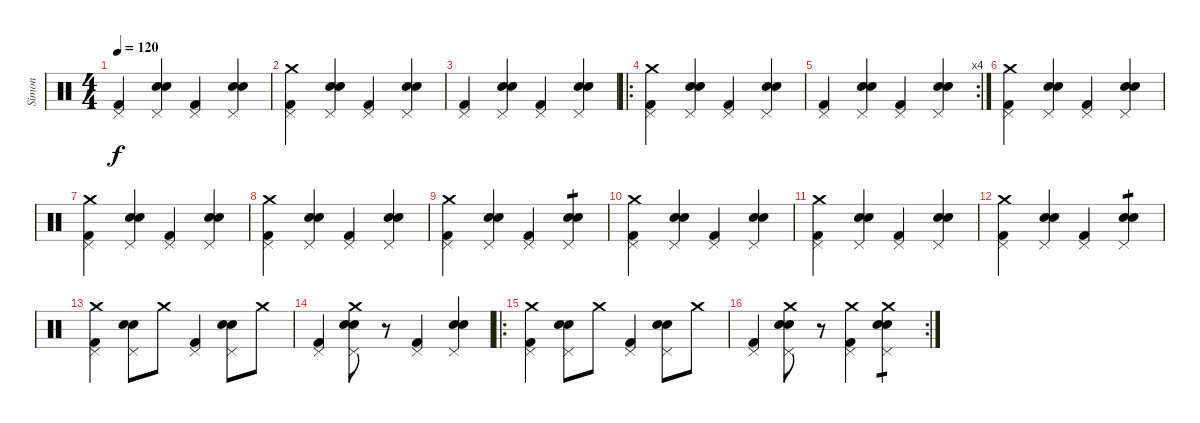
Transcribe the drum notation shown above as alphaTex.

\track ("Simon" "Simon") {instrument percussion}
\staff {score}
\articulation defaults
\ts (4 4)
\tempo 120
\clef neutral
\ks c
("Kick (hit) 2" "Pedal Hi-Hat (hit)").4{dy f} ("Snare (hit) 2" "Electric Snare (hit)" "Pedal Hi-Hat (hit)").4 ("Kick (hit) 2" "Pedal Hi-Hat (hit)").4 ("Snare (hit) 2" "Electric Snare (hit)" "Pedal Hi-Hat (hit)").4 |
("Kick (hit) 2" "Crash medium (hit)" "Pedal Hi-Hat (hit)").4 ("Snare (hit) 2" "Electric Snare (hit)" "Pedal Hi-Hat (hit)").4 ("Kick (hit) 2" "Pedal Hi-Hat (hit)").4 ("Snare (hit) 2" "Electric Snare (hit)" "Pedal Hi-Hat (hit)").4 |
("Kick (hit) 2" "Pedal Hi-Hat (hit)").4 ("Snare (hit) 2" "Electric Snare (hit)" "Pedal Hi-Hat (hit)").4 ("Kick (hit) 2" "Pedal Hi-Hat (hit)").4 ("Snare (hit) 2" "Electric Snare (hit)" "Pedal Hi-Hat (hit)").4 |
\ro
("Kick (hit) 2" "Crash medium (hit)" "Pedal Hi-Hat (hit)").4 ("Snare (hit) 2" "Electric Snare (hit)" "Pedal Hi-Hat (hit)").4 ("Kick (hit) 2" "Pedal Hi-Hat (hit)").4 ("Snare (hit) 2" "Electric Snare (hit)" "Pedal Hi-Hat (hit)").4 |
\rc 4
("Kick (hit) 2" "Pedal Hi-Hat (hit)").4 ("Snare (hit) 2" "Electric Snare (hit)" "Pedal Hi-Hat (hit)").4 ("Kick (hit) 2" "Pedal Hi-Hat (hit)").4 ("Snare (hit) 2" "Electric Snare (hit)" "Pedal Hi-Hat (hit)").4 |
("Kick (hit) 2" "Crash medium (hit)" "Pedal Hi-Hat (hit)").4 ("Snare (hit) 2" "Electric Snare (hit)" "Pedal Hi-Hat (hit)").4 ("Kick (hit) 2" "Pedal Hi-Hat (hit)").4 ("Snare (hit) 2" "Electric Snare (hit)" "Pedal Hi-Hat (hit)").4 |
("Kick (hit) 2" "Crash medium (hit)" "Pedal Hi-Hat (hit)").4 ("Snare (hit) 2" "Electric Snare (hit)" "Pedal Hi-Hat (hit)").4 ("Kick (hit) 2" "Pedal Hi-Hat (hit)").4 ("Snare (hit) 2" "Electric Snare (hit)" "Pedal Hi-Hat (hit)").4 |
("Kick (hit) 2" "Crash medium (hit)" "Pedal Hi-Hat (hit)").4 ("Snare (hit) 2" "Electric Snare (hit)" "Pedal Hi-Hat (hit)").4 ("Kick (hit) 2" "Pedal Hi-Hat (hit)").4 ("Snare (hit) 2" "Electric Snare (hit)" "Pedal Hi-Hat (hit)").4 |
("Kick (hit) 2" "Crash medium (hit)" "Pedal Hi-Hat (hit)").4 ("Snare (hit) 2" "Electric Snare (hit)" "Pedal Hi-Hat (hit)").4 ("Kick (hit) 2" "Pedal Hi-Hat (hit)").4 ("Snare (hit) 2" "Electric Snare (hit)" "Pedal Hi-Hat (hit)").4{tp 1} |
("Kick (hit) 2" "Crash medium (hit)" "Pedal Hi-Hat (hit)").4 ("Snare (hit) 2" "Electric Snare (hit)" "Pedal Hi-Hat (hit)").4 ("Kick (hit) 2" "Pedal Hi-Hat (hit)").4 ("Snare (hit) 2" "Electric Snare (hit)" "Pedal Hi-Hat (hit)").4 |
("Kick (hit) 2" "Crash medium (hit)" "Pedal Hi-Hat (hit)").4 ("Snare (hit) 2" "Electric Snare (hit)" "Pedal Hi-Hat (hit)").4 ("Kick (hit) 2" "Pedal Hi-Hat (hit)").4 ("Snare (hit) 2" "Electric Snare (hit)" "Pedal Hi-Hat (hit)").4 |
("Kick (hit) 2" "Crash medium (hit)" "Pedal Hi-Hat (hit)").4 ("Snare (hit) 2" "Electric Snare (hit)" "Pedal Hi-Hat (hit)").4 ("Kick (hit) 2" "Pedal Hi-Hat (hit)").4 ("Snare (hit) 2" "Electric Snare (hit)" "Pedal Hi-Hat (hit)").4{tp 1} |
("Kick (hit) 2" "Crash medium (hit)" "Pedal Hi-Hat (hit)").4 ("Snare (hit) 2" "Electric Snare (hit)" "Pedal Hi-Hat (hit)").8 "Crash medium (hit)".8 ("Kick (hit) 2" "Pedal Hi-Hat (hit)").4 ("Snare (hit) 2" "Electric Snare (hit)" "Pedal Hi-Hat (hit)").8 "Crash medium (hit)".8 |
("Kick (hit) 2" "Pedal Hi-Hat (hit)").4 ("Snare (hit) 2" "Electric Snare (hit)" "Crash medium (hit)" "Pedal Hi-Hat (hit)").8 r.8 ("Kick (hit) 2" "Pedal Hi-Hat (hit)").4 ("Snare (hit) 2" "Electric Snare (hit)" "Pedal Hi-Hat (hit)").4 |
\ro
("Kick (hit) 2" "Crash medium (hit)" "Pedal Hi-Hat (hit)").4 ("Snare (hit) 2" "Electric Snare (hit)" "Pedal Hi-Hat (hit)").8 "Crash medium (hit)".8 ("Kick (hit) 2" "Pedal Hi-Hat (hit)").4 ("Snare (hit) 2" "Electric Snare (hit)" "Pedal Hi-Hat (hit)").8 "Crash medium (hit)".8 |
\rc 2
("Kick (hit) 2" "Pedal Hi-Hat (hit)").4 ("Snare (hit) 2" "Electric Snare (hit)" "Crash medium (hit)" "Pedal Hi-Hat (hit)").8 r.8 ("Kick (hit) 2" "Crash medium (hit)" "Pedal Hi-Hat (hit)").4 ("Snare (hit) 2" "Electric Snare (hit)" "Crash medium (hit)" "Pedal Hi-Hat (hit)").4{tp 1}
